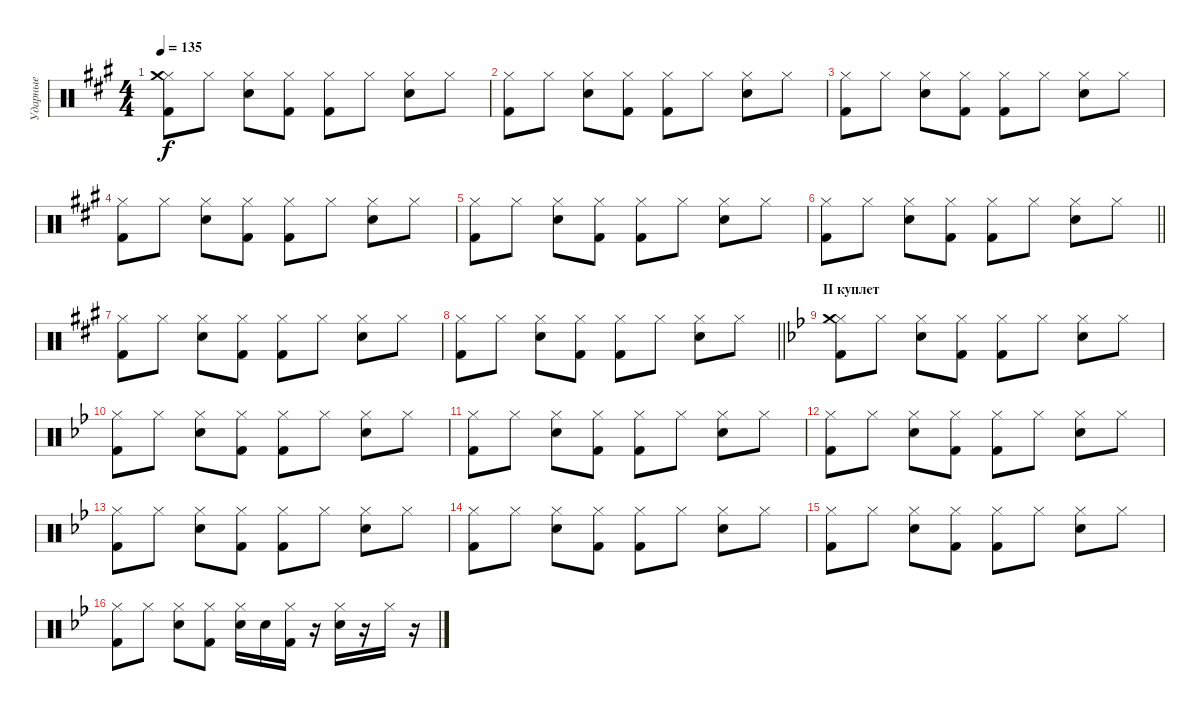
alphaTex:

\track ("Ударные" "Ударные") {instrument percussion}
\staff {score}
\articulation defaults
\ts (4 4)
\tempo 135
\clef neutral
\ks f#minor
("Hi-Hat (closed)" "Crash medium (hit)" "Kick (hit) 2").8{dy f} "Hi-Hat (closed)".8 ("Hi-Hat (closed)" "Electric Snare (hit)").8 ("Hi-Hat (closed)" "Kick (hit) 2").8 ("Hi-Hat (closed)" "Kick (hit) 2").8 "Hi-Hat (closed)".8 ("Hi-Hat (closed)" "Electric Snare (hit)").8 "Hi-Hat (closed)".8 |
("Hi-Hat (closed)" "Kick (hit) 2").8 "Hi-Hat (closed)".8 ("Hi-Hat (closed)" "Electric Snare (hit)").8 ("Hi-Hat (closed)" "Kick (hit) 2").8 ("Hi-Hat (closed)" "Kick (hit) 2").8 "Hi-Hat (closed)".8 ("Hi-Hat (closed)" "Electric Snare (hit)").8 "Hi-Hat (closed)".8 |
("Hi-Hat (closed)" "Kick (hit) 2").8 "Hi-Hat (closed)".8 ("Hi-Hat (closed)" "Electric Snare (hit)").8 ("Hi-Hat (closed)" "Kick (hit) 2").8 ("Hi-Hat (closed)" "Kick (hit) 2").8 "Hi-Hat (closed)".8 ("Hi-Hat (closed)" "Electric Snare (hit)").8 "Hi-Hat (closed)".8 |
("Hi-Hat (closed)" "Kick (hit) 2").8 "Hi-Hat (closed)".8 ("Hi-Hat (closed)" "Electric Snare (hit)").8 ("Hi-Hat (closed)" "Kick (hit) 2").8 ("Hi-Hat (closed)" "Kick (hit) 2").8 "Hi-Hat (closed)".8 ("Hi-Hat (closed)" "Electric Snare (hit)").8 "Hi-Hat (closed)".8 |
("Hi-Hat (closed)" "Kick (hit) 2").8 "Hi-Hat (closed)".8 ("Hi-Hat (closed)" "Electric Snare (hit)").8 ("Hi-Hat (closed)" "Kick (hit) 2").8 ("Hi-Hat (closed)" "Kick (hit) 2").8 "Hi-Hat (closed)".8 ("Hi-Hat (closed)" "Electric Snare (hit)").8 "Hi-Hat (closed)".8 |
\barLineRight lightlight
("Hi-Hat (closed)" "Kick (hit) 2").8 "Hi-Hat (closed)".8 ("Hi-Hat (closed)" "Electric Snare (hit)").8 ("Hi-Hat (closed)" "Kick (hit) 2").8 ("Hi-Hat (closed)" "Kick (hit) 2").8 "Hi-Hat (closed)".8 ("Hi-Hat (closed)" "Electric Snare (hit)").8 "Hi-Hat (closed)".8 |
("Hi-Hat (closed)" "Kick (hit) 2").8 "Hi-Hat (closed)".8 ("Hi-Hat (closed)" "Electric Snare (hit)").8 ("Hi-Hat (closed)" "Kick (hit) 2").8 ("Hi-Hat (closed)" "Kick (hit) 2").8 "Hi-Hat (closed)".8 ("Hi-Hat (closed)" "Electric Snare (hit)").8 "Hi-Hat (closed)".8 |
\barLineRight lightlight
("Hi-Hat (closed)" "Kick (hit) 2").8 "Hi-Hat (closed)".8 ("Hi-Hat (closed)" "Electric Snare (hit)").8 ("Hi-Hat (closed)" "Kick (hit) 2").8 ("Hi-Hat (closed)" "Kick (hit) 2").8 "Hi-Hat (closed)".8 ("Hi-Hat (closed)" "Electric Snare (hit)").8 "Hi-Hat (closed)".8 |
\section ("" "II куплет")
\ks gminor
("Hi-Hat (closed)" "Crash medium (hit)" "Kick (hit) 2").8 "Hi-Hat (closed)".8 ("Hi-Hat (closed)" "Electric Snare (hit)").8 ("Hi-Hat (closed)" "Kick (hit) 2").8 ("Hi-Hat (closed)" "Kick (hit) 2").8 "Hi-Hat (closed)".8 ("Hi-Hat (closed)" "Electric Snare (hit)").8 "Hi-Hat (closed)".8 |
("Hi-Hat (closed)" "Kick (hit) 2").8 "Hi-Hat (closed)".8 ("Hi-Hat (closed)" "Electric Snare (hit)").8 ("Hi-Hat (closed)" "Kick (hit) 2").8 ("Hi-Hat (closed)" "Kick (hit) 2").8 "Hi-Hat (closed)".8 ("Hi-Hat (closed)" "Electric Snare (hit)").8 "Hi-Hat (closed)".8 |
("Hi-Hat (closed)" "Kick (hit) 2").8 "Hi-Hat (closed)".8 ("Hi-Hat (closed)" "Electric Snare (hit)").8 ("Hi-Hat (closed)" "Kick (hit) 2").8 ("Hi-Hat (closed)" "Kick (hit) 2").8 "Hi-Hat (closed)".8 ("Hi-Hat (closed)" "Electric Snare (hit)").8 "Hi-Hat (closed)".8 |
("Hi-Hat (closed)" "Kick (hit) 2").8 "Hi-Hat (closed)".8 ("Hi-Hat (closed)" "Electric Snare (hit)").8 ("Hi-Hat (closed)" "Kick (hit) 2").8 ("Hi-Hat (closed)" "Kick (hit) 2").8 "Hi-Hat (closed)".8 ("Hi-Hat (closed)" "Electric Snare (hit)").8 "Hi-Hat (closed)".8 |
("Hi-Hat (closed)" "Kick (hit) 2").8 "Hi-Hat (closed)".8 ("Hi-Hat (closed)" "Electric Snare (hit)").8 ("Hi-Hat (closed)" "Kick (hit) 2").8 ("Hi-Hat (closed)" "Kick (hit) 2").8 "Hi-Hat (closed)".8 ("Hi-Hat (closed)" "Electric Snare (hit)").8 "Hi-Hat (closed)".8 |
("Hi-Hat (closed)" "Kick (hit) 2").8 "Hi-Hat (closed)".8 ("Hi-Hat (closed)" "Electric Snare (hit)").8 ("Hi-Hat (closed)" "Kick (hit) 2").8 ("Hi-Hat (closed)" "Kick (hit) 2").8 "Hi-Hat (closed)".8 ("Hi-Hat (closed)" "Electric Snare (hit)").8 "Hi-Hat (closed)".8 |
("Hi-Hat (closed)" "Kick (hit) 2").8 "Hi-Hat (closed)".8 ("Hi-Hat (closed)" "Electric Snare (hit)").8 ("Hi-Hat (closed)" "Kick (hit) 2").8 ("Hi-Hat (closed)" "Kick (hit) 2").8 "Hi-Hat (closed)".8 ("Hi-Hat (closed)" "Electric Snare (hit)").8 "Hi-Hat (closed)".8 |
("Hi-Hat (closed)" "Kick (hit) 2").8 "Hi-Hat (closed)".8 ("Hi-Hat (closed)" "Electric Snare (hit)").8 ("Hi-Hat (closed)" "Kick (hit) 2").8 ("Hi-Hat (closed)" "Electric Snare (hit)").16 "Electric Snare (hit)".16 ("Hi-Hat (closed)" "Kick (hit) 2").16 r.16 ("Hi-Hat (closed)" "Electric Snare (hit)").16 r.16 "Hi-Hat (closed)".16 r.16
